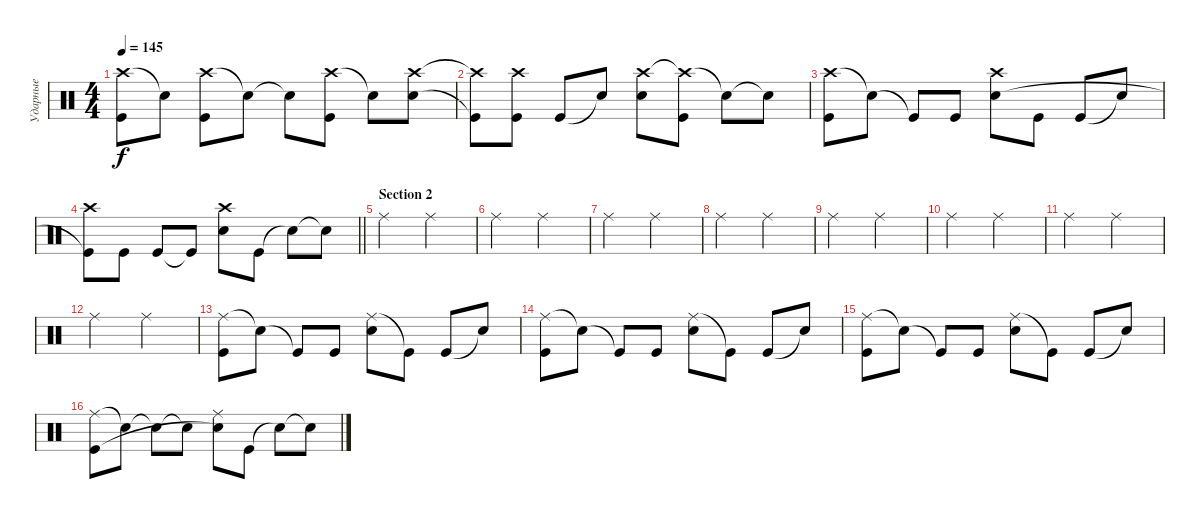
\track ("Ударные" "Ударные") {instrument percussion}
\staff {score}
\articulation defaults
\ts (4 4)
\tempo 145
\clef neutral
\ks c
("Crash high (hit)" "Kick (hit)").8{dy f} "Snare (hit)"{t}.8 ("Crash high (hit)" "Kick (hit)").8 "Snare (hit)"{t}.8 "Snare (hit)"{t}.8 ("Crash high (hit)" "Kick (hit)").8 "Snare (hit)"{t}.8 ("Crash high (hit)" "Snare (hit) 2").8 |
("Crash high (hit)"{t} "Kick (hit)"{t}).8 ("Crash high (hit)" "Kick (hit)").8 "Kick (hit)".8 "Snare (hit) 2"{t}.8 ("Crash high (hit)" "Snare (hit) 2").8 ("Crash high (hit)"{t} "Kick (hit)").8 "Snare (hit)"{t}.8 "Snare (hit)"{t}.8 |
("Crash high (hit)" "Kick (hit)").8 "Snare (hit)"{t}.8 "Kick (hit)"{t}.8 "Kick (hit)".8 ("Crash high (hit)" "Snare (hit) 2").8 "Kick (hit)".8 "Kick (hit)".8 "Snare (hit)"{t}.8 |
\barLineRight lightlight
("Crash high (hit)" "Kick (hit)"{t}).8 "Kick (hit)".8 "Kick (hit)".8 "Kick (hit)"{t}.8 ("Crash high (hit)" "Snare (hit) 2").8 "Kick (hit)".8 "Snare (hit)"{t}.8 "Snare (hit)"{t}.8 |
\section ("" "Section 2")
"Ride (middle)".2 "Ride (middle)".2 |
"Ride (middle)".2 "Ride (middle)".2 |
"Ride (middle)".2 "Ride (middle)".2 |
"Ride (middle)".2 "Ride (middle)".2 |
"Ride (middle)".2 "Ride (middle)".2 |
"Ride (middle)".2 "Ride (middle)".2 |
"Ride (middle)".2 "Ride (middle)".2 |
"Ride (middle)".2 "Ride (middle)".2 |
("Ride (middle)" "Kick (hit)").8 "Snare (hit)"{t}.8 "Kick (hit)"{t}.8 "Kick (hit)".8 ("Ride (middle)" "Snare (hit) 2").8 "Kick (hit)"{t}.8 "Kick (hit)".8 "Snare (hit)"{t}.8 |
("Ride (middle)" "Kick (hit)").8 "Snare (hit)"{t}.8 "Kick (hit)"{t}.8 "Kick (hit)".8 ("Ride (middle)" "Snare (hit) 2").8 "Kick (hit)"{t}.8 "Kick (hit)".8 "Snare (hit)"{t}.8 |
("Ride (middle)" "Kick (hit)").8 "Snare (hit)"{t}.8 "Kick (hit)"{t}.8 "Kick (hit)".8 ("Ride (middle)" "Snare (hit) 2").8 "Kick (hit)"{t}.8 "Kick (hit)".8 "Snare (hit)"{t}.8 |
("Ride (middle)" "Kick (hit)").8 "Snare (hit)"{t}.8 "Snare (hit)"{t}.8 "Snare (hit)"{t}.8 ("Ride (middle)" "Snare (hit)"{t}).8 "Kick (hit)".8 "Snare (hit)"{t}.8 "Snare (hit)"{t}.8
